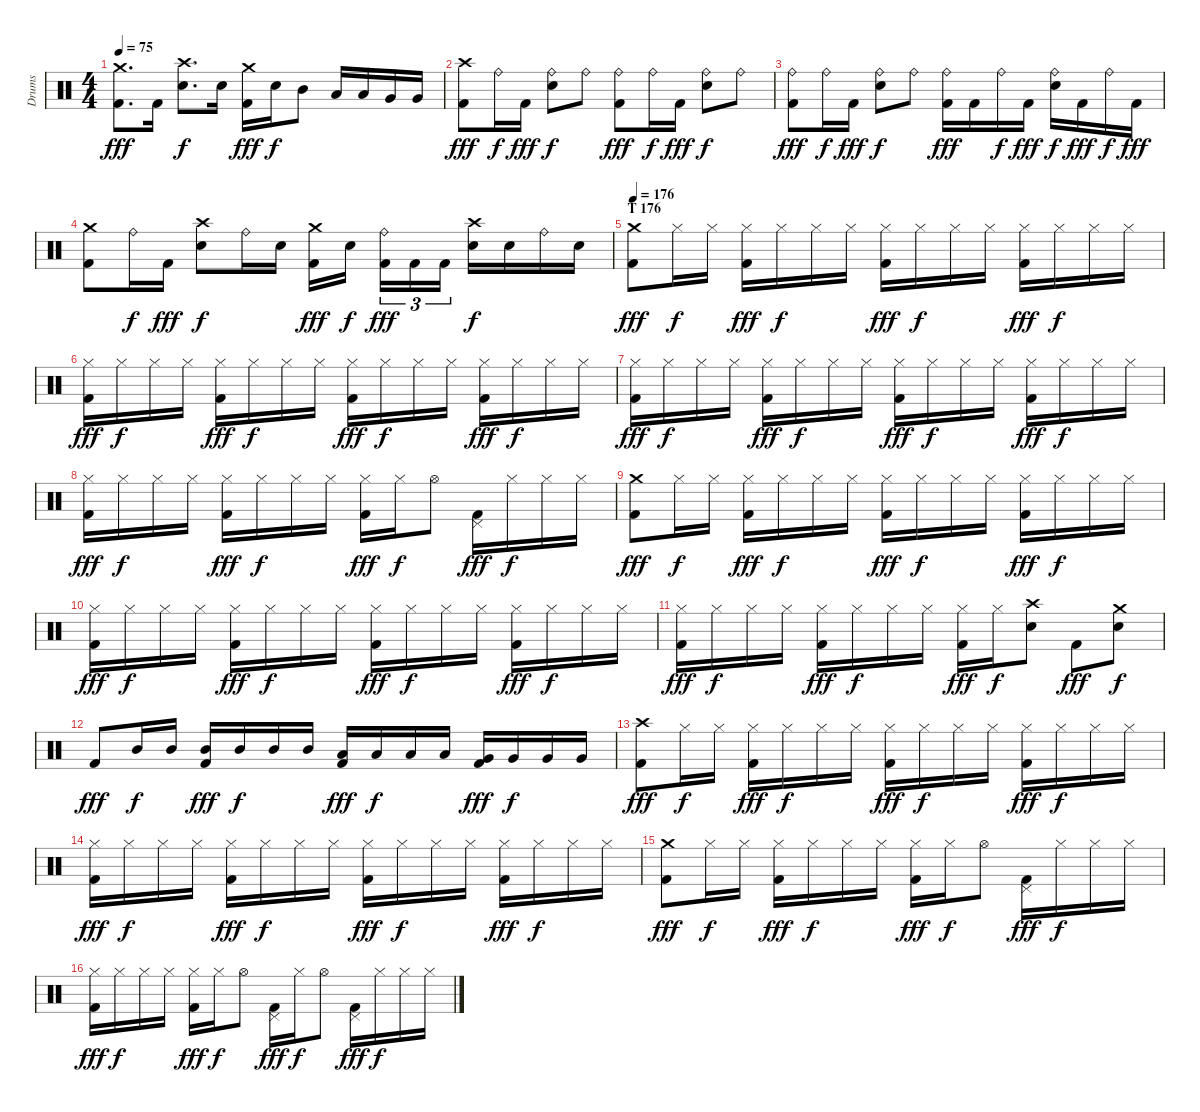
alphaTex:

\track ("Drums" "Drums") {instrument percussion}
\staff {score}
\articulation defaults
\ts (4 4)
\tempo 75
\clef neutral
\ks c
("Crash medium (hit)" "Kick (hit) 2").8{d dy fff} "Kick (hit) 2".16 ("Crash high (hit)" "Snare (hit) 2").8{d dy f} "Snare (hit) 2".16 ("Crash medium (hit)" "Kick (hit) 2").16{dy fff} "Snare (hit) 2".16{dy f} "Mid Tom (hit)".8 "Low Tom (hit)".16 "Low Tom (hit)".16 "Very Low Tom (hit)".16 "Very Low Tom (hit)".16 |
("Crash high (hit)" "Kick (hit) 2").8{dy fff} "Ride (bell)".16{dy f} "Kick (hit) 2".16{dy fff} ("Ride (bell)" "Snare (hit) 2").8{dy f} "Ride (bell)".8 ("Ride (bell)" "Kick (hit) 2").8{dy fff} "Ride (bell)".16{dy f} "Kick (hit) 2".16{dy fff} ("Ride (bell)" "Snare (hit) 2").8{dy f} "Ride (bell)".8 |
("Ride (bell)" "Kick (hit) 2").8{dy fff} "Ride (bell)".16{dy f} "Kick (hit) 2".16{dy fff} ("Ride (bell)" "Snare (hit) 2").8{dy f} "Ride (bell)".8 ("Ride (bell)" "Kick (hit) 2").16{dy fff} "Kick (hit) 2".16 "Ride (bell)".16{dy f} "Kick (hit) 2".16{dy fff} ("Ride (bell)" "Snare (hit) 2").16{dy f} "Kick (hit) 2".16{dy fff} "Ride (bell)".16{dy f} "Kick (hit) 2".16{dy fff} |
("Crash medium (hit)" "Kick (hit) 2").8 "Ride (bell)".16{dy f} "Kick (hit) 2".16{dy fff} ("Crash high (hit)" "Snare (hit) 2").8{dy f} "Ride (bell)".16 "Snare (hit) 2".16 ("Crash medium (hit)" "Kick (hit) 2").16{dy fff} "Snare (hit) 2".16{dy f} ("Ride (bell)" "Kick (hit) 2").16{tu (3 2) dy fff} "Kick (hit) 2".16{tu (3 2)} "Kick (hit) 2".16{tu (3 2)} ("Crash high (hit)" "Snare (hit) 2").16{dy f} "Snare (hit) 2".16 "Ride (bell)".16 "Snare (hit) 2".16 |
\section ("" "T 176")
\tempo 176
("Crash medium (hit)" "Kick (hit) 2").8{dy fff} "Hi-Hat (closed)".16{dy f} "Hi-Hat (closed)".16 ("Hi-Hat (closed)" "Kick (hit) 2").16{dy fff} "Hi-Hat (closed)".16{dy f} "Hi-Hat (closed)".16 "Hi-Hat (closed)".16 ("Hi-Hat (closed)" "Kick (hit) 2").16{dy fff} "Hi-Hat (closed)".16{dy f} "Hi-Hat (closed)".16 "Hi-Hat (closed)".16 ("Hi-Hat (closed)" "Kick (hit) 2").16{dy fff} "Hi-Hat (closed)".16{dy f} "Hi-Hat (closed)".16 "Hi-Hat (closed)".16 |
("Hi-Hat (closed)" "Kick (hit) 2").16{dy fff} "Hi-Hat (closed)".16{dy f} "Hi-Hat (closed)".16 "Hi-Hat (closed)".16 ("Hi-Hat (closed)" "Kick (hit) 2").16{dy fff} "Hi-Hat (closed)".16{dy f} "Hi-Hat (closed)".16 "Hi-Hat (closed)".16 ("Hi-Hat (closed)" "Kick (hit) 2").16{dy fff} "Hi-Hat (closed)".16{dy f} "Hi-Hat (closed)".16 "Hi-Hat (closed)".16 ("Hi-Hat (closed)" "Kick (hit) 2").16{dy fff} "Hi-Hat (closed)".16{dy f} "Hi-Hat (closed)".16 "Hi-Hat (closed)".16 |
("Hi-Hat (closed)" "Kick (hit) 2").16{dy fff} "Hi-Hat (closed)".16{dy f} "Hi-Hat (closed)".16 "Hi-Hat (closed)".16 ("Hi-Hat (closed)" "Kick (hit) 2").16{dy fff} "Hi-Hat (closed)".16{dy f} "Hi-Hat (closed)".16 "Hi-Hat (closed)".16 ("Hi-Hat (closed)" "Kick (hit) 2").16{dy fff} "Hi-Hat (closed)".16{dy f} "Hi-Hat (closed)".16 "Hi-Hat (closed)".16 ("Hi-Hat (closed)" "Kick (hit) 2").16{dy fff} "Hi-Hat (closed)".16{dy f} "Hi-Hat (closed)".16 "Hi-Hat (closed)".16 |
("Hi-Hat (closed)" "Kick (hit) 2").16{dy fff} "Hi-Hat (closed)".16{dy f} "Hi-Hat (closed)".16 "Hi-Hat (closed)".16 ("Hi-Hat (closed)" "Kick (hit) 2").16{dy fff} "Hi-Hat (closed)".16{dy f} "Hi-Hat (closed)".16 "Hi-Hat (closed)".16 ("Hi-Hat (closed)" "Kick (hit) 2").16{dy fff} "Hi-Hat (closed)".16{dy f} "Hi-Hat (open)".8 ("Pedal Hi-Hat (hit)" "Kick (hit) 2").16{dy fff} "Hi-Hat (closed)".16{dy f} "Hi-Hat (closed)".16 "Hi-Hat (closed)".16 |
("Crash medium (hit)" "Kick (hit) 2").8{dy fff} "Hi-Hat (closed)".16{dy f} "Hi-Hat (closed)".16 ("Hi-Hat (closed)" "Kick (hit) 2").16{dy fff} "Hi-Hat (closed)".16{dy f} "Hi-Hat (closed)".16 "Hi-Hat (closed)".16 ("Hi-Hat (closed)" "Kick (hit) 2").16{dy fff} "Hi-Hat (closed)".16{dy f} "Hi-Hat (closed)".16 "Hi-Hat (closed)".16 ("Hi-Hat (closed)" "Kick (hit) 2").16{dy fff} "Hi-Hat (closed)".16{dy f} "Hi-Hat (closed)".16 "Hi-Hat (closed)".16 |
("Hi-Hat (closed)" "Kick (hit) 2").16{dy fff} "Hi-Hat (closed)".16{dy f} "Hi-Hat (closed)".16 "Hi-Hat (closed)".16 ("Hi-Hat (closed)" "Kick (hit) 2").16{dy fff} "Hi-Hat (closed)".16{dy f} "Hi-Hat (closed)".16 "Hi-Hat (closed)".16 ("Hi-Hat (closed)" "Kick (hit) 2").16{dy fff} "Hi-Hat (closed)".16{dy f} "Hi-Hat (closed)".16 "Hi-Hat (closed)".16 ("Hi-Hat (closed)" "Kick (hit) 2").16{dy fff} "Hi-Hat (closed)".16{dy f} "Hi-Hat (closed)".16 "Hi-Hat (closed)".16 |
("Hi-Hat (closed)" "Kick (hit) 2").16{dy fff} "Hi-Hat (closed)".16{dy f} "Hi-Hat (closed)".16 "Hi-Hat (closed)".16 ("Hi-Hat (closed)" "Kick (hit) 2").16{dy fff} "Hi-Hat (closed)".16{dy f} "Hi-Hat (closed)".16 "Hi-Hat (closed)".16 ("Hi-Hat (closed)" "Kick (hit) 2").16{dy fff} "Hi-Hat (closed)".16{dy f} ("Crash high (hit)" "Snare (hit) 2").8 "Kick (hit) 2".8{dy fff} ("Crash medium (hit)" "Snare (hit) 2").8{dy f} |
"Kick (hit) 2".8{dy fff} "Mid Tom (hit)".16{dy f} "Mid Tom (hit)".16 ("Mid Tom (hit)" "Kick (hit) 2").16{dy fff} "Mid Tom (hit)".16{dy f} "Mid Tom (hit)".16 "Mid Tom (hit)".16 ("Low Tom (hit)" "Kick (hit) 2").16{dy fff} "Low Tom (hit)".16{dy f} "Low Tom (hit)".16 "Low Tom (hit)".16 ("Very Low Tom (hit)" "Kick (hit) 2").16{dy fff} "Very Low Tom (hit)".16{dy f} "Very Low Tom (hit)".16 "Very Low Tom (hit)".16 |
("Crash high (hit)" "Kick (hit) 2").8{dy fff} "Hi-Hat (closed)".16{dy f} "Hi-Hat (closed)".16 ("Hi-Hat (closed)" "Kick (hit) 2").16{dy fff} "Hi-Hat (closed)".16{dy f} "Hi-Hat (closed)".16 "Hi-Hat (closed)".16 ("Hi-Hat (closed)" "Kick (hit) 2").16{dy fff} "Hi-Hat (closed)".16{dy f} "Hi-Hat (closed)".16 "Hi-Hat (closed)".16 ("Hi-Hat (closed)" "Kick (hit) 2").16{dy fff} "Hi-Hat (closed)".16{dy f} "Hi-Hat (closed)".16 "Hi-Hat (closed)".16 |
("Hi-Hat (closed)" "Kick (hit) 2").16{dy fff} "Hi-Hat (closed)".16{dy f} "Hi-Hat (closed)".16 "Hi-Hat (closed)".16 ("Hi-Hat (closed)" "Kick (hit) 2").16{dy fff} "Hi-Hat (closed)".16{dy f} "Hi-Hat (closed)".16 "Hi-Hat (closed)".16 ("Hi-Hat (closed)" "Kick (hit) 2").16{dy fff} "Hi-Hat (closed)".16{dy f} "Hi-Hat (closed)".16 "Hi-Hat (closed)".16 ("Hi-Hat (closed)" "Kick (hit) 2").16{dy fff} "Hi-Hat (closed)".16{dy f} "Hi-Hat (closed)".16 "Hi-Hat (closed)".16 |
("Crash medium (hit)" "Kick (hit) 2").8{dy fff} "Hi-Hat (closed)".16{dy f} "Hi-Hat (closed)".16 ("Hi-Hat (closed)" "Kick (hit) 2").16{dy fff} "Hi-Hat (closed)".16{dy f} "Hi-Hat (closed)".16 "Hi-Hat (closed)".16 ("Hi-Hat (closed)" "Kick (hit) 2").16{dy fff} "Hi-Hat (closed)".16{dy f} "Hi-Hat (open)".8 ("Pedal Hi-Hat (hit)" "Kick (hit) 2").16{dy fff} "Hi-Hat (closed)".16{dy f} "Hi-Hat (closed)".16 "Hi-Hat (closed)".16 |
("Hi-Hat (closed)" "Kick (hit) 2").16{dy fff} "Hi-Hat (closed)".16{dy f} "Hi-Hat (closed)".16 "Hi-Hat (closed)".16 ("Hi-Hat (closed)" "Kick (hit) 2").16{dy fff} "Hi-Hat (closed)".16{dy f} "Hi-Hat (open)".8 ("Pedal Hi-Hat (hit)" "Kick (hit) 2").16{dy fff} "Hi-Hat (closed)".16{dy f} "Hi-Hat (open)".8 ("Pedal Hi-Hat (hit)" "Kick (hit) 2").16{dy fff} "Hi-Hat (closed)".16{dy f} "Hi-Hat (closed)".16 "Hi-Hat (closed)".16
